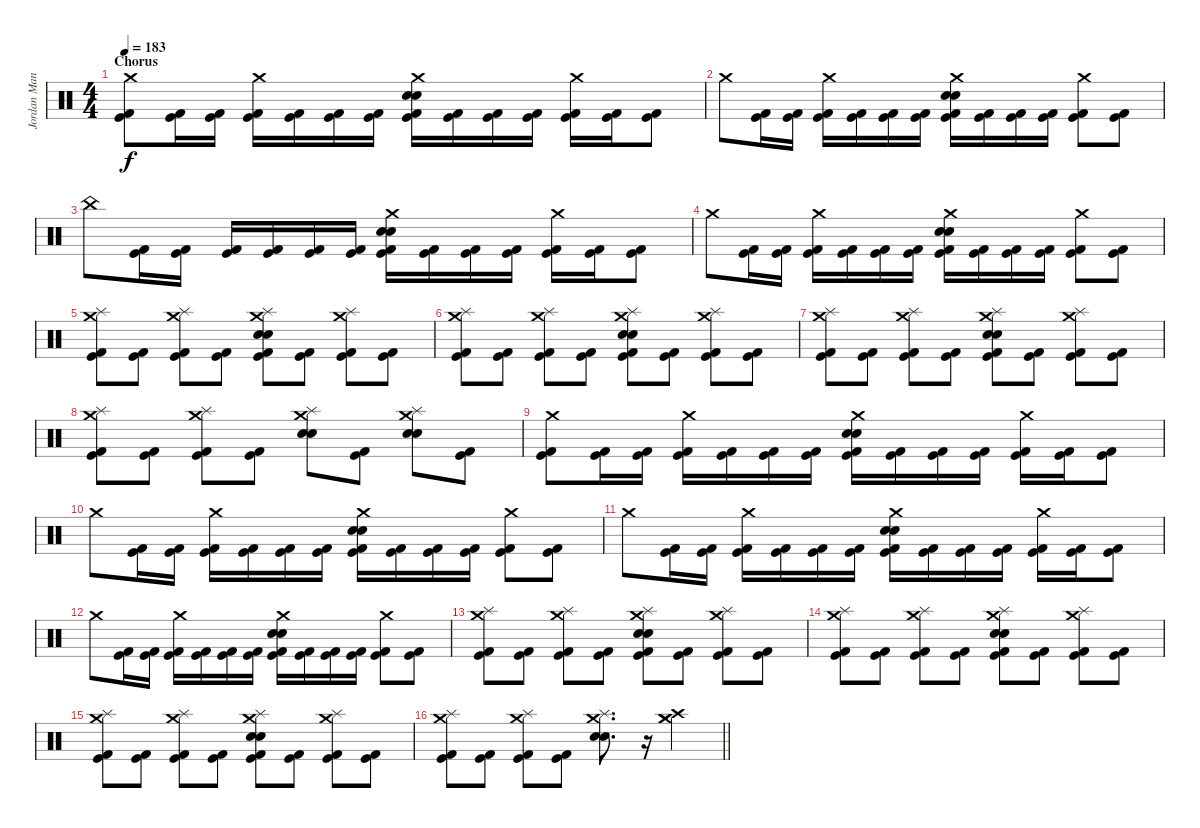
\track ("Jordan Mancino" "Jordan Man") {instrument percussion}
\staff {score}
\articulation defaults
\ts (4 4)
\section ("" "Chorus")
\tempo 183
\clef neutral
\ks c
("Crash medium (hit)" "Kick (hit)" "Kick (hit) 2").8{dy f} ("Kick (hit)" "Kick (hit) 2").16 ("Kick (hit)" "Kick (hit) 2").16 ("Crash medium (hit)" "Kick (hit)" "Kick (hit) 2").16 ("Kick (hit)" "Kick (hit) 2").16 ("Kick (hit)" "Kick (hit) 2").16 ("Kick (hit)" "Kick (hit) 2").16 ("Crash medium (hit)" "Electric Snare (hit)" "Snare (hit) 2" "Kick (hit)" "Kick (hit) 2").16 ("Kick (hit)" "Kick (hit) 2").16 ("Kick (hit)" "Kick (hit) 2").16 ("Kick (hit)" "Kick (hit) 2").16 ("Crash medium (hit)" "Kick (hit)" "Kick (hit) 2").16 ("Kick (hit)" "Kick (hit) 2").16 ("Kick (hit)" "Kick (hit) 2").8 |
"Crash medium (hit)".8 ("Kick (hit)" "Kick (hit) 2").16 ("Kick (hit)" "Kick (hit) 2").16 ("Crash medium (hit)" "Kick (hit)" "Kick (hit) 2").16 ("Kick (hit)" "Kick (hit) 2").16 ("Kick (hit)" "Kick (hit) 2").16 ("Kick (hit)" "Kick (hit) 2").16 ("Crash medium (hit)" "Electric Snare (hit)" "Snare (hit) 2" "Kick (hit)" "Kick (hit) 2").16 ("Kick (hit)" "Kick (hit) 2").16 ("Kick (hit)" "Kick (hit) 2").16 ("Kick (hit)" "Kick (hit) 2").16 ("Crash medium (hit)" "Kick (hit)" "Kick (hit) 2").8 ("Kick (hit)" "Kick (hit) 2").8 |
"China (hit)".8 ("Kick (hit)" "Kick (hit) 2").16 ("Kick (hit)" "Kick (hit) 2").16 ("Kick (hit)" "Kick (hit) 2").16 ("Kick (hit)" "Kick (hit) 2").16 ("Kick (hit)" "Kick (hit) 2").16 ("Kick (hit)" "Kick (hit) 2").16 ("Crash medium (hit)" "Electric Snare (hit)" "Snare (hit) 2" "Kick (hit)" "Kick (hit) 2").16 ("Kick (hit)" "Kick (hit) 2").16 ("Kick (hit)" "Kick (hit) 2").16 ("Kick (hit)" "Kick (hit) 2").16 ("Crash medium (hit)" "Kick (hit)" "Kick (hit) 2").16 ("Kick (hit)" "Kick (hit) 2").16 ("Kick (hit)" "Kick (hit) 2").8 |
"Crash medium (hit)".8 ("Kick (hit)" "Kick (hit) 2").16 ("Kick (hit)" "Kick (hit) 2").16 ("Crash medium (hit)" "Kick (hit)" "Kick (hit) 2").16 ("Kick (hit)" "Kick (hit) 2").16 ("Kick (hit)" "Kick (hit) 2").16 ("Kick (hit)" "Kick (hit) 2").16 ("Crash medium (hit)" "Electric Snare (hit)" "Snare (hit) 2" "Kick (hit)" "Kick (hit) 2").16 ("Kick (hit)" "Kick (hit) 2").16 ("Kick (hit)" "Kick (hit) 2").16 ("Kick (hit)" "Kick (hit) 2").16 ("Crash medium (hit)" "Kick (hit)" "Kick (hit) 2").8 ("Kick (hit)" "Kick (hit) 2").8 |
("Crash medium (hit)" "Splash (hit)" "Kick (hit)" "Kick (hit) 2").8 ("Kick (hit)" "Kick (hit) 2").8 ("Crash medium (hit)" "Splash (hit)" "Kick (hit)" "Kick (hit) 2").8 ("Kick (hit)" "Kick (hit) 2").8 ("Crash medium (hit)" "Splash (hit)" "Electric Snare (hit)" "Snare (hit) 2" "Kick (hit)" "Kick (hit) 2").8 ("Kick (hit)" "Kick (hit) 2").8 ("Crash medium (hit)" "Splash (hit)" "Kick (hit)" "Kick (hit) 2").8 ("Kick (hit)" "Kick (hit) 2").8 |
("Crash medium (hit)" "Splash (hit)" "Kick (hit)" "Kick (hit) 2").8 ("Kick (hit)" "Kick (hit) 2").8 ("Crash medium (hit)" "Splash (hit)" "Kick (hit)" "Kick (hit) 2").8 ("Kick (hit)" "Kick (hit) 2").8 ("Crash medium (hit)" "Splash (hit)" "Electric Snare (hit)" "Snare (hit) 2" "Kick (hit)" "Kick (hit) 2").8 ("Kick (hit)" "Kick (hit) 2").8 ("Crash medium (hit)" "Splash (hit)" "Kick (hit)" "Kick (hit) 2").8 ("Kick (hit)" "Kick (hit) 2").8 |
("Crash medium (hit)" "Splash (hit)" "Kick (hit)" "Kick (hit) 2").8 ("Kick (hit)" "Kick (hit) 2").8 ("Crash medium (hit)" "Splash (hit)" "Kick (hit)" "Kick (hit) 2").8 ("Kick (hit)" "Kick (hit) 2").8 ("Crash medium (hit)" "Splash (hit)" "Electric Snare (hit)" "Snare (hit) 2" "Kick (hit)" "Kick (hit) 2").8 ("Kick (hit)" "Kick (hit) 2").8 ("Crash medium (hit)" "Splash (hit)" "Kick (hit)" "Kick (hit) 2").8 ("Kick (hit)" "Kick (hit) 2").8 |
("Crash medium (hit)" "Splash (hit)" "Kick (hit)" "Kick (hit) 2").8 ("Kick (hit)" "Kick (hit) 2").8 ("Crash medium (hit)" "Splash (hit)" "Kick (hit)" "Kick (hit) 2").8 ("Kick (hit)" "Kick (hit) 2").8 ("Crash medium (hit)" "Splash (hit)" "Electric Snare (hit)" "Snare (hit) 2").8 ("Kick (hit)" "Kick (hit) 2").8 ("Crash medium (hit)" "Splash (hit)" "Electric Snare (hit)" "Snare (hit) 2").8 ("Kick (hit)" "Kick (hit) 2").8 |
("Crash medium (hit)" "Kick (hit)" "Kick (hit) 2").8 ("Kick (hit)" "Kick (hit) 2").16 ("Kick (hit)" "Kick (hit) 2").16 ("Crash medium (hit)" "Kick (hit)" "Kick (hit) 2").16 ("Kick (hit)" "Kick (hit) 2").16 ("Kick (hit)" "Kick (hit) 2").16 ("Kick (hit)" "Kick (hit) 2").16 ("Crash medium (hit)" "Electric Snare (hit)" "Snare (hit) 2" "Kick (hit)" "Kick (hit) 2").16 ("Kick (hit)" "Kick (hit) 2").16 ("Kick (hit)" "Kick (hit) 2").16 ("Kick (hit)" "Kick (hit) 2").16 ("Crash medium (hit)" "Kick (hit)" "Kick (hit) 2").16 ("Kick (hit)" "Kick (hit) 2").16 ("Kick (hit)" "Kick (hit) 2").8 |
"Crash medium (hit)".8 ("Kick (hit)" "Kick (hit) 2").16 ("Kick (hit)" "Kick (hit) 2").16 ("Crash medium (hit)" "Kick (hit)" "Kick (hit) 2").16 ("Kick (hit)" "Kick (hit) 2").16 ("Kick (hit)" "Kick (hit) 2").16 ("Kick (hit)" "Kick (hit) 2").16 ("Crash medium (hit)" "Electric Snare (hit)" "Snare (hit) 2" "Kick (hit)" "Kick (hit) 2").16 ("Kick (hit)" "Kick (hit) 2").16 ("Kick (hit)" "Kick (hit) 2").16 ("Kick (hit)" "Kick (hit) 2").16 ("Crash medium (hit)" "Kick (hit)" "Kick (hit) 2").8 ("Kick (hit)" "Kick (hit) 2").8 |
"Crash medium (hit)".8 ("Kick (hit)" "Kick (hit) 2").16 ("Kick (hit)" "Kick (hit) 2").16 ("Crash medium (hit)" "Kick (hit)" "Kick (hit) 2").16 ("Kick (hit)" "Kick (hit) 2").16 ("Kick (hit)" "Kick (hit) 2").16 ("Kick (hit)" "Kick (hit) 2").16 ("Crash medium (hit)" "Electric Snare (hit)" "Snare (hit) 2" "Kick (hit)" "Kick (hit) 2").16 ("Kick (hit)" "Kick (hit) 2").16 ("Kick (hit)" "Kick (hit) 2").16 ("Kick (hit)" "Kick (hit) 2").16 ("Crash medium (hit)" "Kick (hit)" "Kick (hit) 2").16 ("Kick (hit)" "Kick (hit) 2").16 ("Kick (hit)" "Kick (hit) 2").8 |
"Crash medium (hit)".8 ("Kick (hit)" "Kick (hit) 2").16 ("Kick (hit)" "Kick (hit) 2").16 ("Crash medium (hit)" "Kick (hit)" "Kick (hit) 2").16 ("Kick (hit)" "Kick (hit) 2").16 ("Kick (hit)" "Kick (hit) 2").16 ("Kick (hit)" "Kick (hit) 2").16 ("Crash medium (hit)" "Electric Snare (hit)" "Snare (hit) 2" "Kick (hit)" "Kick (hit) 2").16 ("Kick (hit)" "Kick (hit) 2").16 ("Kick (hit)" "Kick (hit) 2").16 ("Kick (hit)" "Kick (hit) 2").16 ("Crash medium (hit)" "Kick (hit)" "Kick (hit) 2").8 ("Kick (hit)" "Kick (hit) 2").8 |
("Crash medium (hit)" "Splash (hit)" "Kick (hit)" "Kick (hit) 2").8 ("Kick (hit)" "Kick (hit) 2").8 ("Crash medium (hit)" "Splash (hit)" "Kick (hit)" "Kick (hit) 2").8 ("Kick (hit)" "Kick (hit) 2").8 ("Crash medium (hit)" "Splash (hit)" "Electric Snare (hit)" "Snare (hit) 2" "Kick (hit)" "Kick (hit) 2").8 ("Kick (hit)" "Kick (hit) 2").8 ("Crash medium (hit)" "Splash (hit)" "Kick (hit)" "Kick (hit) 2").8 ("Kick (hit)" "Kick (hit) 2").8 |
("Crash medium (hit)" "Splash (hit)" "Kick (hit)" "Kick (hit) 2").8 ("Kick (hit)" "Kick (hit) 2").8 ("Crash medium (hit)" "Splash (hit)" "Kick (hit)" "Kick (hit) 2").8 ("Kick (hit)" "Kick (hit) 2").8 ("Crash medium (hit)" "Splash (hit)" "Electric Snare (hit)" "Snare (hit) 2" "Kick (hit)" "Kick (hit) 2").8 ("Kick (hit)" "Kick (hit) 2").8 ("Crash medium (hit)" "Splash (hit)" "Kick (hit)" "Kick (hit) 2").8 ("Kick (hit)" "Kick (hit) 2").8 |
("Crash medium (hit)" "Splash (hit)" "Kick (hit)" "Kick (hit) 2").8 ("Kick (hit)" "Kick (hit) 2").8 ("Crash medium (hit)" "Splash (hit)" "Kick (hit)" "Kick (hit) 2").8 ("Kick (hit)" "Kick (hit) 2").8 ("Crash medium (hit)" "Splash (hit)" "Electric Snare (hit)" "Snare (hit) 2" "Kick (hit)" "Kick (hit) 2").8 ("Kick (hit)" "Kick (hit) 2").8 ("Crash medium (hit)" "Splash (hit)" "Kick (hit)" "Kick (hit) 2").8 ("Kick (hit)" "Kick (hit) 2").8 |
\barLineRight lightlight
("Crash medium (hit)" "Splash (hit)" "Kick (hit)" "Kick (hit) 2").8 ("Kick (hit)" "Kick (hit) 2").8 ("Crash medium (hit)" "Splash (hit)" "Kick (hit)" "Kick (hit) 2").8 ("Kick (hit)" "Kick (hit) 2").8 ("Crash medium (hit)" "Splash (hit)" "Electric Snare (hit)" "Snare (hit) 2").8{d} r.16{volume 0} ("Crash high (hit)" "Crash medium (hit)" "Crash medium (hit)").4{volume 13}
